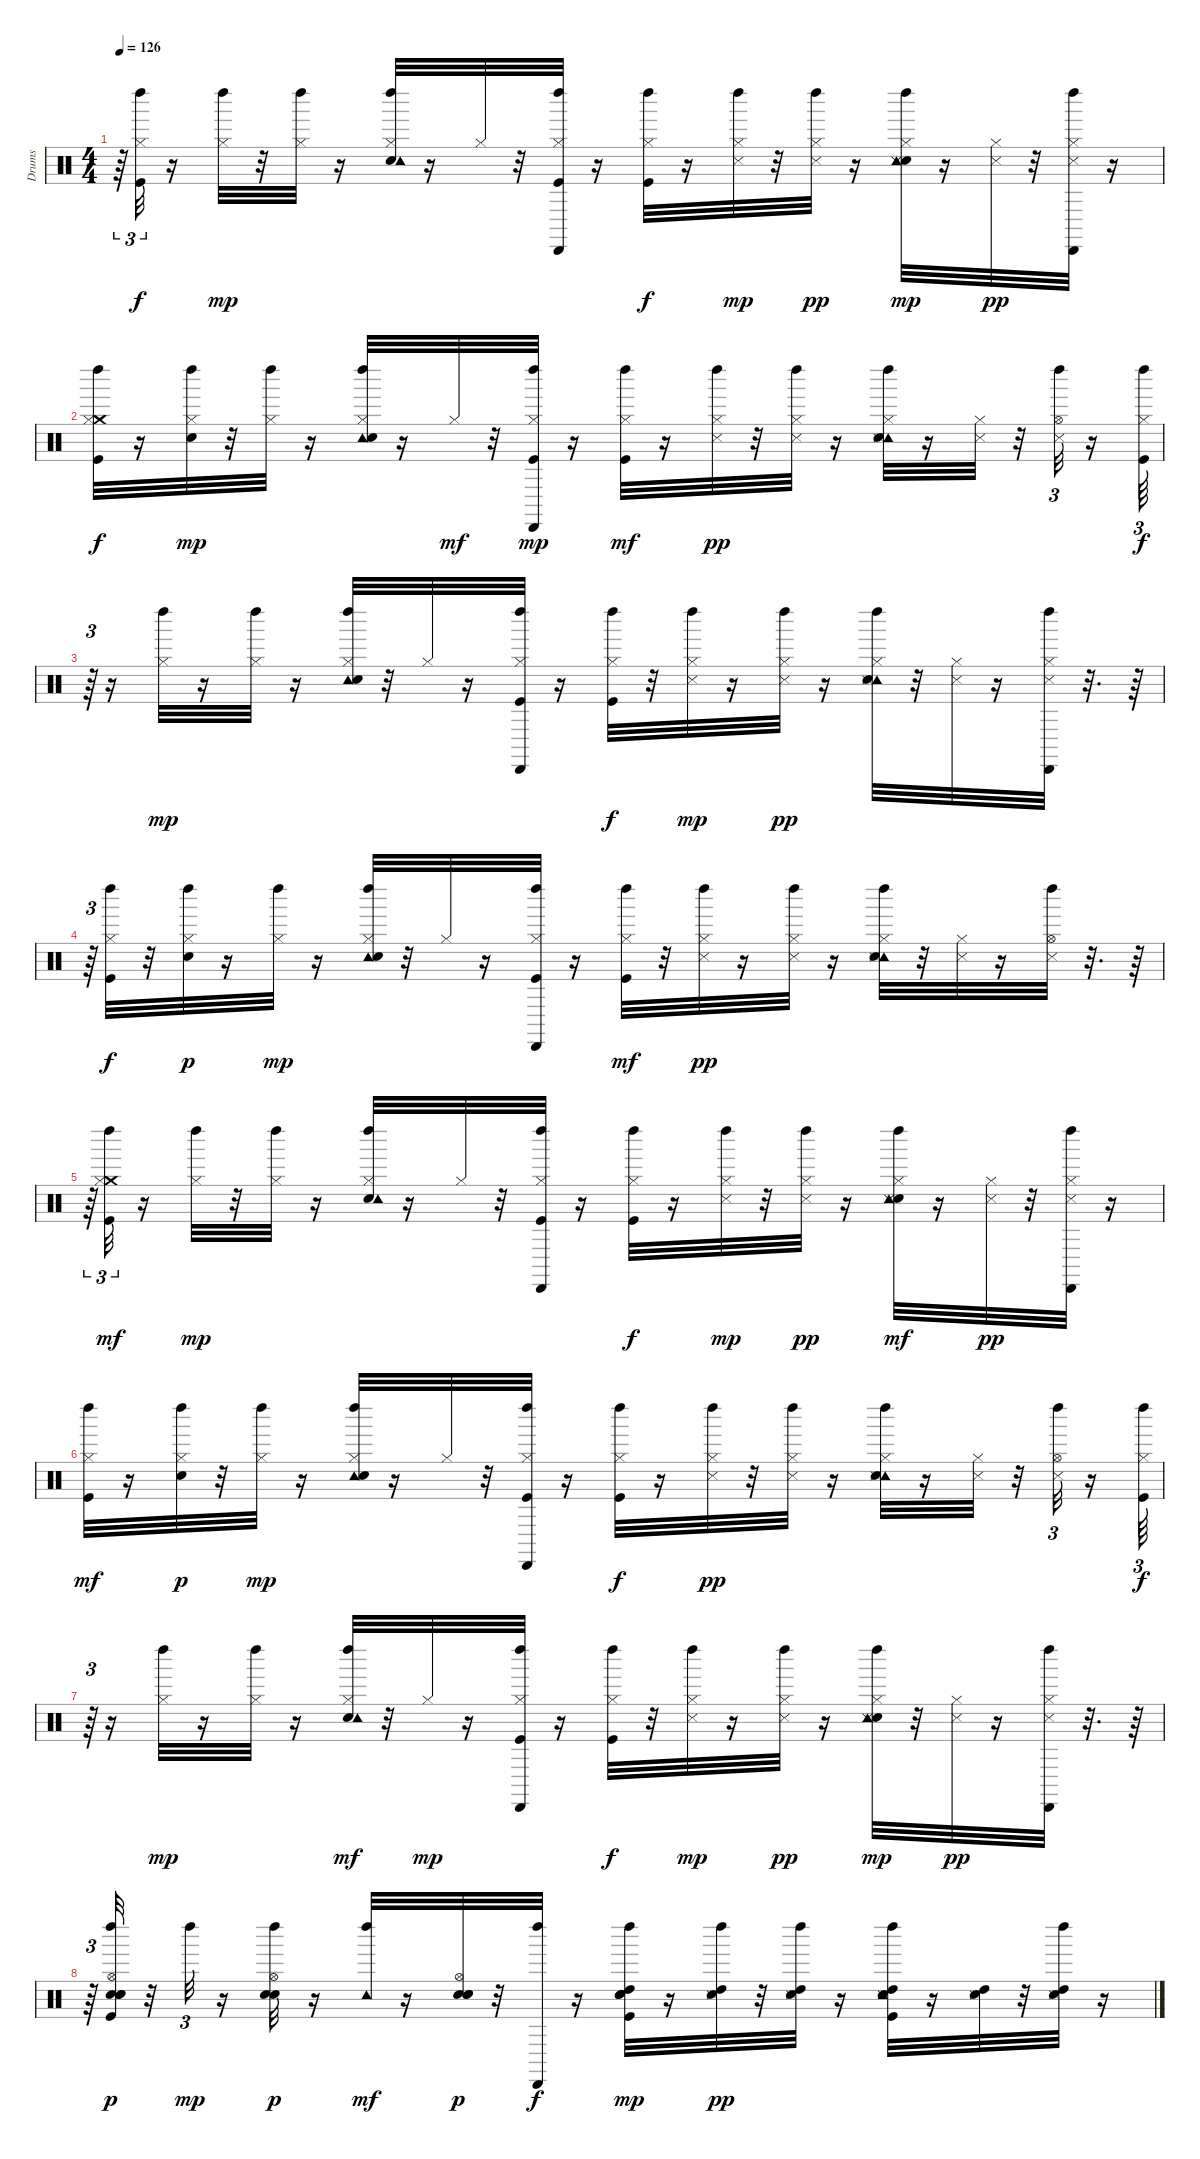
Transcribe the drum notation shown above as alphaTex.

\track ("Drums" "Drums") {instrument percussion}
\staff {score}
\articulation defaults
\ts (4 4)
\tempo 126
\clef neutral
\ks c
r.64{tu (3 2) dy pp} ("Kick (hit)" "Hi-Hat (closed)" "Left Maraca (hit)").32{tu (3 2) dy f} r.16 ("Hi-Hat (closed)" "Left Maraca (hit)").32{dy mp} r.32 ("Hi-Hat (closed)" "Left Maraca (hit)").32 r.16 ("Hi-Hat (closed)" "Left Maraca (hit)" "Hand Clap (hit)" "Tambourine (hit)").32 r.16 "Hi-Hat (closed)".32 r.32 ("Cabasa (hit)" "Kick (hit)" "Hi-Hat (closed)" "Left Maraca (hit)").32 r.16 ("Hi-Hat (closed)" "Kick (hit)" "Left Maraca (hit)").32{dy f} r.16 ("Hi-Hat (closed)" "Snare (side stick) 3" "Left Maraca (hit)").32{dy mp} r.32 ("Hi-Hat (closed)" "Left Maraca (hit)" "Snare (side stick) 3").32{dy pp} r.16 ("Hi-Hat (closed)" "Hand Clap (hit)" "Snare (side stick) 3" "Left Maraca (hit)" "Tambourine (hit)").32{dy mp} r.16 ("Hi-Hat (closed)" "Snare (side stick) 3").32{dy pp} r.32 ("Cabasa (hit)" "Hi-Hat (closed)" "Snare (side stick) 3" "Left Maraca (hit)").32 r.16 |
("Left Maraca (hit)" "Crash medium (hit)" "Kick (hit)" "Hi-Hat (closed)").32{dy f} r.16 ("Left Maraca (hit)" "Hi-Hat (closed)" "Electric Snare (hit)").32{dy mp} r.32 ("Left Maraca (hit)" "Hi-Hat (closed)").32 r.16 ("Tambourine (hit)" "Left Maraca (hit)" "Hi-Hat (closed)" "Hand Clap (hit)").32 r.16 "Hi-Hat (closed)".32{dy mf} r.32 ("Kick (hit)" "Hi-Hat (closed)" "Left Maraca (hit)" "Cabasa (hit)").32{dy mp} r.16 ("Kick (hit)" "Hi-Hat (closed)" "Left Maraca (hit)").32{dy mf} r.16 ("Hi-Hat (closed)" "Left Maraca (hit)" "Snare (side stick) 3").32{dy pp} r.32 ("Hi-Hat (closed)" "Left Maraca (hit)" "Snare (side stick) 3").32 r.16 ("Tambourine (hit)" "Hi-Hat (closed)" "Hand Clap (hit)" "Snare (side stick) 3" "Left Maraca (hit)").32 r.16 ("Hi-Hat (closed)" "Snare (side stick) 3").32 r.32 ("Hi-Hat (open)" "Snare (side stick) 3" "Left Maraca (hit)").32{tu (3 2)} r.16 ("Kick (hit)" "Hi-Hat (closed)" "Left Maraca (hit)").64{tu (3 2) dy f} |
r.64{tu (3 2)} r.16 ("Hi-Hat (closed)" "Left Maraca (hit)").32{dy mp} r.16 ("Hi-Hat (closed)" "Left Maraca (hit)").32 r.16 ("Hi-Hat (closed)" "Tambourine (hit)" "Left Maraca (hit)" "Hand Clap (hit)").32 r.32 "Hi-Hat (closed)".32 r.16 ("Cabasa (hit)" "Kick (hit)" "Hi-Hat (closed)" "Left Maraca (hit)").32 r.16 ("Hi-Hat (closed)" "Kick (hit)" "Left Maraca (hit)").32{dy f} r.32 ("Hi-Hat (closed)" "Snare (side stick) 3" "Left Maraca (hit)").32{dy mp} r.16 ("Hi-Hat (closed)" "Left Maraca (hit)" "Snare (side stick) 3").32{dy pp} r.16 ("Hi-Hat (closed)" "Tambourine (hit)" "Hand Clap (hit)" "Snare (side stick) 3" "Left Maraca (hit)").32 r.32 ("Hi-Hat (closed)" "Snare (side stick) 3").32 r.16 ("Cabasa (hit)" "Hi-Hat (closed)" "Snare (side stick) 3" "Left Maraca (hit)").32 r.32{d} r.64 |
r.64{tu (3 2)} ("Left Maraca (hit)" "Kick (hit)" "Hi-Hat (closed)").32{dy f} r.32 ("Left Maraca (hit)" "Hi-Hat (closed)" "Electric Snare (hit)").32{dy p} r.16 ("Left Maraca (hit)" "Hi-Hat (closed)").32{dy mp} r.16 ("Left Maraca (hit)" "Tambourine (hit)" "Hi-Hat (closed)" "Hand Clap (hit)").32 r.32 "Hi-Hat (closed)".32 r.16 ("Kick (hit)" "Hi-Hat (closed)" "Left Maraca (hit)" "Cabasa (hit)").32 r.16 ("Kick (hit)" "Hi-Hat (closed)" "Left Maraca (hit)").32{dy mf} r.32 ("Hi-Hat (closed)" "Left Maraca (hit)" "Snare (side stick) 3").32{dy pp} r.16 ("Hi-Hat (closed)" "Left Maraca (hit)" "Snare (side stick) 3").32 r.16 ("Hi-Hat (closed)" "Tambourine (hit)" "Hand Clap (hit)" "Snare (side stick) 3" "Left Maraca (hit)").32 r.32 ("Hi-Hat (closed)" "Snare (side stick) 3").32 r.16 ("Hi-Hat (open)" "Snare (side stick) 3" "Left Maraca (hit)").32 r.32{d} r.64 |
r.64{tu (3 2)} ("Crash medium (hit)" "Kick (hit)" "Hi-Hat (closed)" "Left Maraca (hit)").32{tu (3 2) dy mf} r.16 ("Hi-Hat (closed)" "Left Maraca (hit)").32{dy mp} r.32 ("Hi-Hat (closed)" "Left Maraca (hit)").32 r.16 ("Hi-Hat (closed)" "Left Maraca (hit)" "Hand Clap (hit)" "Tambourine (hit)").32 r.16 "Hi-Hat (closed)".32 r.32 ("Cabasa (hit)" "Kick (hit)" "Hi-Hat (closed)" "Left Maraca (hit)").32 r.16 ("Hi-Hat (closed)" "Kick (hit)" "Left Maraca (hit)").32{dy f} r.16 ("Hi-Hat (closed)" "Snare (side stick) 3" "Left Maraca (hit)").32{dy mp} r.32 ("Hi-Hat (closed)" "Left Maraca (hit)" "Snare (side stick) 3").32{dy pp} r.16 ("Hi-Hat (closed)" "Hand Clap (hit)" "Snare (side stick) 3" "Left Maraca (hit)" "Tambourine (hit)").32{dy mf} r.16 ("Hi-Hat (closed)" "Snare (side stick) 3").32{dy pp} r.32 ("Cabasa (hit)" "Hi-Hat (closed)" "Snare (side stick) 3" "Left Maraca (hit)").32 r.16 |
("Left Maraca (hit)" "Kick (hit)" "Hi-Hat (closed)").32{dy mf} r.16 ("Left Maraca (hit)" "Hi-Hat (closed)" "Electric Snare (hit)").32{dy p} r.32 ("Left Maraca (hit)" "Hi-Hat (closed)").32{dy mp} r.16 ("Tambourine (hit)" "Left Maraca (hit)" "Hi-Hat (closed)" "Hand Clap (hit)").32 r.16 "Hi-Hat (closed)".32 r.32 ("Kick (hit)" "Hi-Hat (closed)" "Left Maraca (hit)" "Cabasa (hit)").32 r.16 ("Kick (hit)" "Hi-Hat (closed)" "Left Maraca (hit)").32{dy f} r.16 ("Hi-Hat (closed)" "Left Maraca (hit)" "Snare (side stick) 3").32{dy pp} r.32 ("Hi-Hat (closed)" "Left Maraca (hit)" "Snare (side stick) 3").32 r.16 ("Tambourine (hit)" "Hi-Hat (closed)" "Hand Clap (hit)" "Snare (side stick) 3" "Left Maraca (hit)").32 r.16 ("Hi-Hat (closed)" "Snare (side stick) 3").32 r.32 ("Hi-Hat (open)" "Snare (side stick) 3" "Left Maraca (hit)").32{tu (3 2)} r.16 ("Kick (hit)" "Hi-Hat (closed)" "Left Maraca (hit)").64{tu (3 2) dy f} |
r.64{tu (3 2)} r.16 ("Hi-Hat (closed)" "Left Maraca (hit)").32{dy mp} r.16 ("Hi-Hat (closed)" "Left Maraca (hit)").32 r.16 ("Hi-Hat (closed)" "Left Maraca (hit)" "Hand Clap (hit)" "Tambourine (hit)").32{dy mf} r.32 "Hi-Hat (closed)".32{dy mp} r.16 ("Cabasa (hit)" "Kick (hit)" "Hi-Hat (closed)" "Left Maraca (hit)").32 r.16 ("Hi-Hat (closed)" "Kick (hit)" "Left Maraca (hit)").32{dy f} r.32 ("Hi-Hat (closed)" "Snare (side stick) 3" "Left Maraca (hit)").32{dy mp} r.16 ("Hi-Hat (closed)" "Left Maraca (hit)" "Snare (side stick) 3").32{dy pp} r.16 ("Hi-Hat (closed)" "Hand Clap (hit)" "Snare (side stick) 3" "Left Maraca (hit)" "Tambourine (hit)").32{dy mp} r.32 ("Hi-Hat (closed)" "Snare (side stick) 3").32{dy pp} r.16 ("Cabasa (hit)" "Hi-Hat (closed)" "Snare (side stick) 3" "Left Maraca (hit)").32 r.32{d} r.64 |
r.64{tu (3 2)} ("Left Maraca (hit)" "Kick (hit)" "Snare (hit) 2" "Hi-Hat (open)" "Electric Snare (hit)" "Hand Clap (hit)").32{dy p} r.32 "Left Maraca (hit)".32{tu (3 2) dy mp} r.16 ("Left Maraca (hit)" "Hi-Hat (open)" "Snare (hit) 2" "Electric Snare (hit)").32{dy p} r.16 ("Tambourine (hit)" "Left Maraca (hit)").32{dy mf} r.16 ("Hi-Hat (open)" "Snare (hit) 2" "Electric Snare (hit)" "Hand Clap (hit)").32{dy p} r.32 ("Left Maraca (hit)" "Cabasa (hit)").32{dy f} r.16 ("Electric Snare (hit)" "Hand Clap (hit)" "Kick (hit)" "Snare (hit) 2" "High Tom (hit)" "Left Maraca (hit)").32{dy mp} r.16 ("Left Maraca (hit)" "Snare (hit) 2" "High Tom (hit)" "Snare (side stick) 3").32{dy pp} r.32 ("Left Maraca (hit)" "Snare (hit) 2" "High Tom (hit)" "Snare (side stick) 3").32 r.16 ("Tambourine (hit)" "Kick (hit)" "Snare (hit) 2" "High Tom (hit)" "Snare (side stick) 3" "Left Maraca (hit)").32 r.16 ("High Tom (hit)" "Snare (hit) 2" "Snare (side stick) 3").32 r.32 ("Snare (hit) 2" "High Tom (hit)" "Snare (side stick) 3" "Left Maraca (hit)").32 r.16
